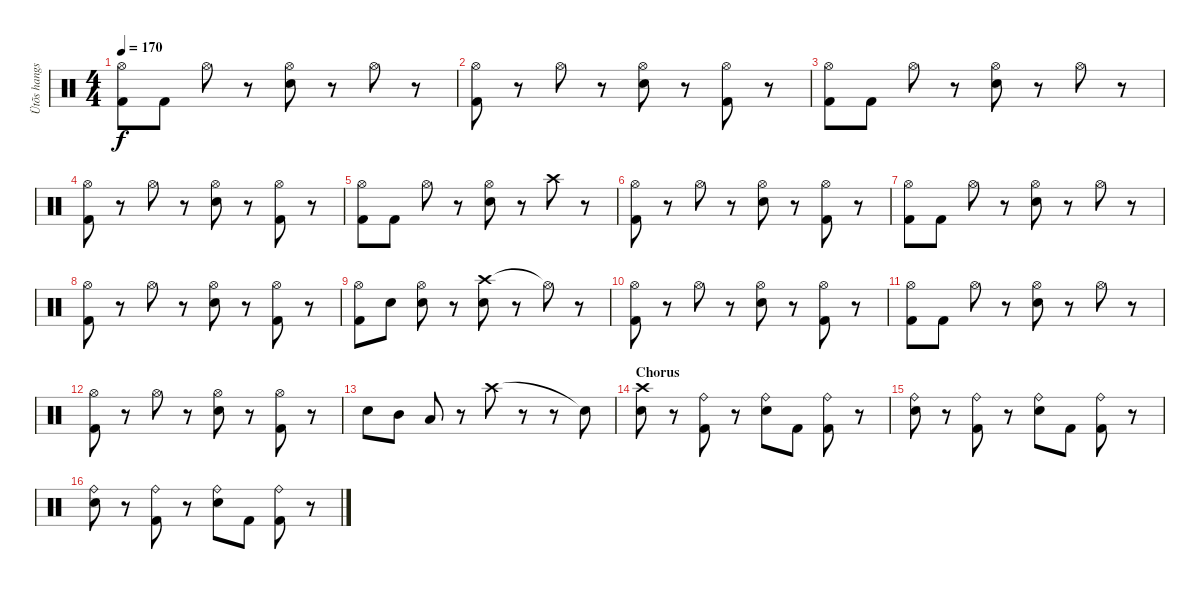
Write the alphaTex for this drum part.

\track ("Ütõs hangszer" "Ütõs hangs") {instrument percussion}
\staff {score}
\articulation defaults
\ts (4 4)
\tempo 170
\clef neutral
\ks c
("Hi-Hat (open)" "Kick (hit) 2").8{dy f} "Kick (hit) 2".8 "Hi-Hat (open)".8 r.8 ("Hi-Hat (open)" "Snare (hit) 2").8 r.8 "Hi-Hat (open)".8 r.8 |
("Hi-Hat (open)" "Kick (hit) 2").8 r.8 "Hi-Hat (open)".8 r.8 ("Hi-Hat (open)" "Snare (hit) 2").8 r.8 ("Hi-Hat (open)" "Kick (hit) 2").8 r.8 |
("Hi-Hat (open)" "Kick (hit) 2").8 "Kick (hit) 2".8 "Hi-Hat (open)".8 r.8 ("Hi-Hat (open)" "Snare (hit) 2").8 r.8 "Hi-Hat (open)".8 r.8 |
("Hi-Hat (open)" "Kick (hit) 2").8 r.8 "Hi-Hat (open)".8 r.8 ("Hi-Hat (open)" "Snare (hit) 2").8 r.8 ("Hi-Hat (open)" "Kick (hit) 2").8 r.8 |
("Hi-Hat (open)" "Kick (hit) 2").8 "Kick (hit) 2".8 "Hi-Hat (open)".8 r.8 ("Hi-Hat (open)" "Snare (hit) 2").8 r.8 "Crash high (hit)".8 r.8 |
("Hi-Hat (open)" "Kick (hit) 2").8 r.8 "Hi-Hat (open)".8 r.8 ("Hi-Hat (open)" "Snare (hit) 2").8 r.8 ("Hi-Hat (open)" "Kick (hit) 2").8 r.8 |
("Hi-Hat (open)" "Kick (hit) 2").8 "Kick (hit) 2".8 "Hi-Hat (open)".8 r.8 ("Hi-Hat (open)" "Snare (hit) 2").8 r.8 "Hi-Hat (open)".8 r.8 |
("Hi-Hat (open)" "Kick (hit) 2").8 r.8 "Hi-Hat (open)".8 r.8 ("Hi-Hat (open)" "Snare (hit) 2").8 r.8 ("Hi-Hat (open)" "Kick (hit) 2").8 r.8 |
("Hi-Hat (open)" "Kick (hit) 2").8 "Snare (hit) 2".8 ("Hi-Hat (open)" "Snare (hit) 2").8 r.8 ("Crash high (hit)" "Snare (hit) 2").8 r.8 "Hi-Hat (open)"{t}.8 r.8 |
("Hi-Hat (open)" "Kick (hit) 2").8 r.8 "Hi-Hat (open)".8 r.8 ("Hi-Hat (open)" "Snare (hit) 2").8 r.8 ("Hi-Hat (open)" "Kick (hit) 2").8 r.8 |
("Hi-Hat (open)" "Kick (hit) 2").8 "Kick (hit) 2".8 "Hi-Hat (open)".8 r.8 ("Hi-Hat (open)" "Snare (hit) 2").8 r.8 "Hi-Hat (open)".8 r.8 |
("Hi-Hat (open)" "Kick (hit) 2").8 r.8 "Hi-Hat (open)".8 r.8 ("Hi-Hat (open)" "Snare (hit) 2").8 r.8 ("Hi-Hat (open)" "Kick (hit) 2").8 r.8 |
"Snare (hit) 2".8 "Mid Tom (hit)".8 "Low Tom (hit)".8 r.8 "Crash high (hit)".8 r.8 r.8 "Snare (hit)"{t}.8 |
\section ("" "Chorus")
("Crash high (hit)" "Snare (hit) 2").8 r.8 ("Ride (bell)" "Kick (hit) 2").8 r.8 ("Ride (bell)" "Snare (hit) 2").8 "Kick (hit) 2".8 ("Ride (bell)" "Kick (hit) 2").8 r.8 |
("Ride (bell)" "Snare (hit) 2").8 r.8 ("Ride (bell)" "Kick (hit) 2").8 r.8 ("Ride (bell)" "Snare (hit) 2").8 "Kick (hit) 2".8 ("Ride (bell)" "Kick (hit) 2").8 r.8 |
("Ride (bell)" "Snare (hit) 2").8 r.8 ("Ride (bell)" "Kick (hit) 2").8 r.8 ("Ride (bell)" "Snare (hit) 2").8 "Kick (hit) 2".8 ("Ride (bell)" "Kick (hit) 2").8 r.8
